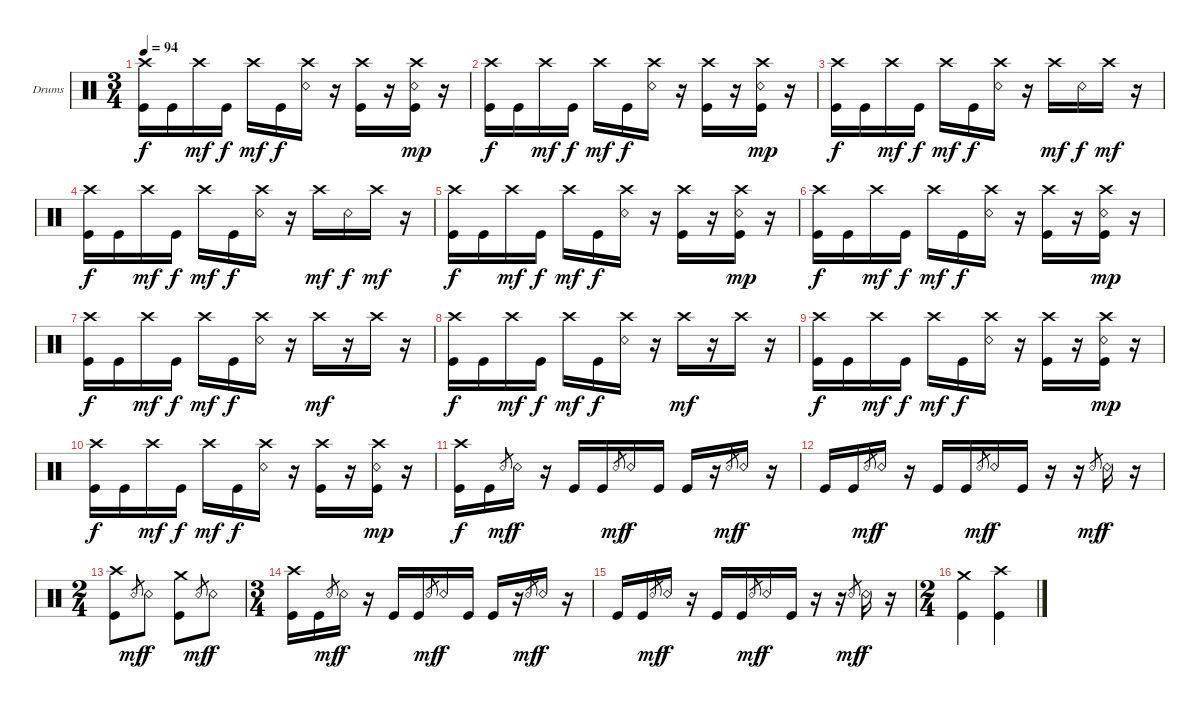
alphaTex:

\bracketExtendMode groupsimilarinstruments
\firstSystemTrackNameOrientation horizontal
\otherSystemsTrackNameOrientation horizontal
\track ("Drumkit" "Drums") {instrument percussion}
\staff {score}
\articulation defaults
\ts (3 4)
\tempo 94
\clef neutral
\ks c
("Kick (hit)" "Crash high (hit)").16{dy f} "Kick (hit)".16 "Crash high (hit)".16{dy mf} "Kick (hit)".16{dy f} "Crash high (hit)".16{dy mf} "Kick (hit)".16{dy f} ("Snare (rim shot)" "Crash high (hit)").16 r.16 ("Kick (hit)" "Crash high (hit)").16 r.16 ("Kick (hit)" "Snare (rim shot)" "Crash high (hit)").16{dy mp} r.16 |
("Kick (hit)" "Crash high (hit)").16{dy f} "Kick (hit)".16 "Crash high (hit)".16{dy mf} "Kick (hit)".16{dy f} "Crash high (hit)".16{dy mf} "Kick (hit)".16{dy f} ("Snare (rim shot)" "Crash high (hit)").16 r.16 ("Kick (hit)" "Crash high (hit)").16 r.16 ("Kick (hit)" "Snare (rim shot)" "Crash high (hit)").16{dy mp} r.16 |
("Kick (hit)" "Crash high (hit)").16{dy f} "Kick (hit)".16 "Crash high (hit)".16{dy mf} "Kick (hit)".16{dy f} "Crash high (hit)".16{dy mf} "Kick (hit)".16{dy f} ("Snare (rim shot)" "Crash high (hit)").16 r.16 "Crash high (hit)".16{dy mf} "Snare (rim shot)".16{dy f} "Crash high (hit)".16{dy mf} r.16 |
("Kick (hit)" "Crash high (hit)").16{dy f} "Kick (hit)".16 "Crash high (hit)".16{dy mf} "Kick (hit)".16{dy f} "Crash high (hit)".16{dy mf} "Kick (hit)".16{dy f} ("Snare (rim shot)" "Crash high (hit)").16 r.16 "Crash high (hit)".16{dy mf} "Snare (rim shot)".16{dy f} "Crash high (hit)".16{dy mf} r.16 |
("Kick (hit)" "Crash high (hit)").16{dy f} "Kick (hit)".16 "Crash high (hit)".16{dy mf} "Kick (hit)".16{dy f} "Crash high (hit)".16{dy mf} "Kick (hit)".16{dy f} ("Snare (rim shot)" "Crash high (hit)").16 r.16 ("Kick (hit)" "Crash high (hit)").16 r.16 ("Kick (hit)" "Snare (rim shot)" "Crash high (hit)").16{dy mp} r.16 |
("Kick (hit)" "Crash high (hit)").16{dy f} "Kick (hit)".16 "Crash high (hit)".16{dy mf} "Kick (hit)".16{dy f} "Crash high (hit)".16{dy mf} "Kick (hit)".16{dy f} ("Snare (rim shot)" "Crash high (hit)").16 r.16 ("Kick (hit)" "Crash high (hit)").16 r.16 ("Kick (hit)" "Snare (rim shot)" "Crash high (hit)").16{dy mp} r.16 |
("Kick (hit)" "Crash high (hit)").16{dy f} "Kick (hit)".16 "Crash high (hit)".16{dy mf} "Kick (hit)".16{dy f} "Crash high (hit)".16{dy mf} "Kick (hit)".16{dy f} ("Snare (rim shot)" "Crash high (hit)").16 r.16 "Crash high (hit)".16{dy mf} r.16 "Crash high (hit)".16 r.16 |
("Kick (hit)" "Crash high (hit)").16{dy f} "Kick (hit)".16 "Crash high (hit)".16{dy mf} "Kick (hit)".16{dy f} "Crash high (hit)".16{dy mf} "Kick (hit)".16{dy f} ("Snare (rim shot)" "Crash high (hit)").16 r.16 "Crash high (hit)".16{dy mf} r.16 "Crash high (hit)".16 r.16 |
("Kick (hit)" "Crash high (hit)").16{dy f} "Kick (hit)".16 "Crash high (hit)".16{dy mf} "Kick (hit)".16{dy f} "Crash high (hit)".16{dy mf} "Kick (hit)".16{dy f} ("Snare (rim shot)" "Crash high (hit)").16 r.16 ("Kick (hit)" "Crash high (hit)").16 r.16 ("Kick (hit)" "Snare (rim shot)" "Crash high (hit)").16{dy mp} r.16 |
("Kick (hit)" "Crash high (hit)").16{dy f} "Kick (hit)".16 "Crash high (hit)".16{dy mf} "Kick (hit)".16{dy f} "Crash high (hit)".16{dy mf} "Kick (hit)".16{dy f} ("Snare (rim shot)" "Crash high (hit)").16 r.16 ("Kick (hit)" "Crash high (hit)").16 r.16 ("Kick (hit)" "Snare (rim shot)" "Crash high (hit)").16{dy mp} r.16 |
("Kick (hit)" "Crash high (hit)").16{dy f} "Kick (hit)".16 "Snare (rim shot)".8{gr dy mf} "Snare (rim shot)".16{dy f} r.16 "Kick (hit)".16 "Kick (hit)".16 "Snare (rim shot)".8{gr dy mf} "Snare (rim shot)".16{dy f} "Kick (hit)".16 "Kick (hit)".16 r.16 "Snare (rim shot)".8{gr dy mf} "Snare (rim shot)".16{dy f} r.16 |
"Kick (hit)".16 "Kick (hit)".16 "Snare (rim shot)".8{gr dy mf} "Snare (rim shot)".16{dy f} r.16 "Kick (hit)".16 "Kick (hit)".16 "Snare (rim shot)".8{gr dy mf} "Snare (rim shot)".16{dy f} "Kick (hit)".16 r.16 r.16 "Snare (rim shot)".8{gr dy mf} "Snare (rim shot)".16{dy f} r.16 |
\ts (2 4)
("Kick (hit)" "Crash high (hit)").8 "Snare (rim shot)".8{gr dy mf} "Snare (rim shot)".8{dy f} ("Kick (hit)" "Crash medium (hit)").8 "Snare (rim shot)".8{gr dy mf} "Snare (rim shot)".8{dy f} |
\ts (3 4)
("Kick (hit)" "Crash high (hit)").16 "Kick (hit)".16 "Snare (rim shot)".8{gr dy mf} "Snare (rim shot)".16{dy f} r.16 "Kick (hit)".16 "Kick (hit)".16 "Snare (rim shot)".8{gr dy mf} "Snare (rim shot)".16{dy f} "Kick (hit)".16 "Kick (hit)".16 r.16 "Snare (rim shot)".8{gr dy mf} "Snare (rim shot)".16{dy f} r.16 |
"Kick (hit)".16 "Kick (hit)".16 "Snare (rim shot)".8{gr dy mf} "Snare (rim shot)".16{dy f} r.16 "Kick (hit)".16 "Kick (hit)".16 "Snare (rim shot)".8{gr dy mf} "Snare (rim shot)".16{dy f} "Kick (hit)".16 r.16 r.16 "Snare (rim shot)".8{gr dy mf} "Snare (rim shot)".16{dy f} r.16 |
\ts (2 4)
("Kick (hit)" "Crash medium (hit)").4 ("Kick (hit)" "Crash high (hit)").4
